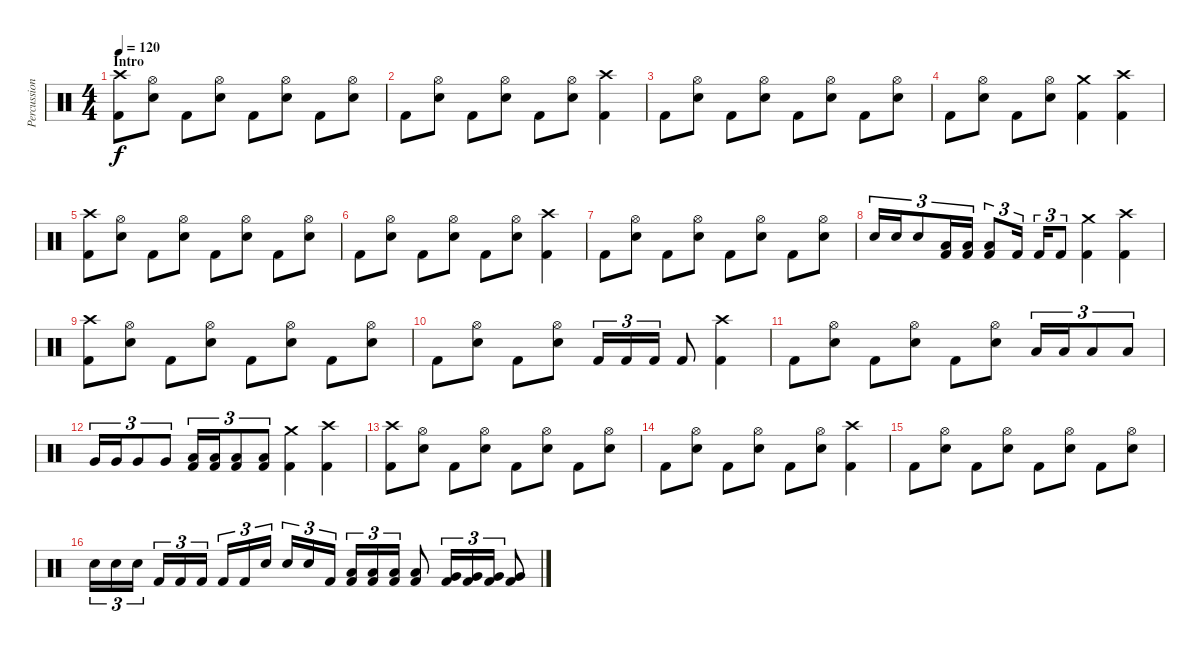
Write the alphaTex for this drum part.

\track ("Percussioni" "Percussion") {instrument percussion}
\staff {score}
\articulation defaults
\ts (4 4)
\section ("" "Intro")
\tempo 120
\tempo 230
\tempo 120
\clef neutral
\ks c
("Crash high (hit)" "Kick (hit) 2").8{dy f} ("Hi-Hat (open)" "Electric Snare (hit)").8 "Kick (hit) 2".8 ("Hi-Hat (open)" "Electric Snare (hit)").8 "Kick (hit) 2".8 ("Hi-Hat (open)" "Electric Snare (hit)").8 "Kick (hit) 2".8 ("Hi-Hat (open)" "Electric Snare (hit)").8 |
"Kick (hit) 2".8 ("Hi-Hat (open)" "Electric Snare (hit)").8 "Kick (hit) 2".8 ("Hi-Hat (open)" "Electric Snare (hit)").8 "Kick (hit) 2".8 ("Hi-Hat (open)" "Electric Snare (hit)").8 ("Crash high (hit)" "Kick (hit) 2").4 |
"Kick (hit) 2".8 ("Hi-Hat (open)" "Electric Snare (hit)").8 "Kick (hit) 2".8 ("Hi-Hat (open)" "Electric Snare (hit)").8 "Kick (hit) 2".8 ("Hi-Hat (open)" "Electric Snare (hit)").8 "Kick (hit) 2".8 ("Hi-Hat (open)" "Electric Snare (hit)").8 |
"Kick (hit) 2".8 ("Hi-Hat (open)" "Electric Snare (hit)").8 "Kick (hit) 2".8 ("Hi-Hat (open)" "Electric Snare (hit)").8 ("Crash medium (hit)" "Kick (hit) 2").4 ("Crash high (hit)" "Kick (hit) 2").4 |
("Crash high (hit)" "Kick (hit) 2").8 ("Hi-Hat (open)" "Electric Snare (hit)").8 "Kick (hit) 2".8 ("Hi-Hat (open)" "Electric Snare (hit)").8 "Kick (hit) 2".8 ("Hi-Hat (open)" "Electric Snare (hit)").8 "Kick (hit) 2".8 ("Hi-Hat (open)" "Electric Snare (hit)").8 |
"Kick (hit) 2".8 ("Hi-Hat (open)" "Electric Snare (hit)").8 "Kick (hit) 2".8 ("Hi-Hat (open)" "Electric Snare (hit)").8 "Kick (hit) 2".8 ("Hi-Hat (open)" "Electric Snare (hit)").8 ("Crash high (hit)" "Kick (hit) 2").4 |
"Kick (hit) 2".8 ("Hi-Hat (open)" "Electric Snare (hit)").8 "Kick (hit) 2".8 ("Hi-Hat (open)" "Electric Snare (hit)").8 "Kick (hit) 2".8 ("Hi-Hat (open)" "Electric Snare (hit)").8 "Kick (hit) 2".8 ("Hi-Hat (open)" "Electric Snare (hit)").8 |
"Electric Snare (hit)".16{tu (3 2)} "Electric Snare (hit)".16{tu (3 2)} "Electric Snare (hit)".8{tu (3 2)} ("Low Floor Tom (hit)" "Kick (hit) 2").16{tu (3 2)} ("Low Floor Tom (hit)" "Kick (hit) 2").16{tu (3 2)} ("Low Floor Tom (hit)" "Kick (hit) 2").8{tu (3 2)} "Kick (hit) 2".16{tu (3 2)} "Kick (hit) 2".16{tu (3 2)} "Kick (hit) 2".8{tu (3 2)} ("Crash medium (hit)" "Kick (hit) 2").4 ("Crash high (hit)" "Kick (hit) 2").4 |
("Crash high (hit)" "Kick (hit) 2").8 ("Hi-Hat (open)" "Electric Snare (hit)").8 "Kick (hit) 2".8 ("Hi-Hat (open)" "Electric Snare (hit)").8 "Kick (hit) 2".8 ("Hi-Hat (open)" "Electric Snare (hit)").8 "Kick (hit) 2".8 ("Hi-Hat (open)" "Electric Snare (hit)").8 |
"Kick (hit) 2".8 ("Hi-Hat (open)" "Electric Snare (hit)").8 "Kick (hit) 2".8 ("Hi-Hat (open)" "Electric Snare (hit)").8 "Kick (hit) 2".16{tu (3 2)} "Kick (hit) 2".16{tu (3 2)} "Kick (hit) 2".16{tu (3 2)} "Kick (hit) 2".8 ("Crash high (hit)" "Kick (hit) 2").4 |
"Kick (hit) 2".8 ("Hi-Hat (open)" "Electric Snare (hit)").8 "Kick (hit) 2".8 ("Hi-Hat (open)" "Electric Snare (hit)").8 "Kick (hit) 2".8 ("Hi-Hat (open)" "Electric Snare (hit)").8 "Low Tom (hit)".16{tu (3 2)} "Low Tom (hit)".16{tu (3 2)} "Low Tom (hit)".8{tu (3 2)} "Low Tom (hit)".8{tu (3 2)} |
"Very Low Tom (hit)".16{tu (3 2)} "Very Low Tom (hit)".16{tu (3 2)} "Very Low Tom (hit)".8{tu (3 2)} "Very Low Tom (hit)".8{tu (3 2)} ("Low Floor Tom (hit)" "Kick (hit) 2").16{tu (3 2)} ("Low Floor Tom (hit)" "Kick (hit) 2").16{tu (3 2)} ("Low Floor Tom (hit)" "Kick (hit) 2").8{tu (3 2)} ("Low Floor Tom (hit)" "Kick (hit) 2").8{tu (3 2)} ("Crash medium (hit)" "Kick (hit) 2").4 ("Crash high (hit)" "Kick (hit) 2").4 |
("Crash high (hit)" "Kick (hit) 2").8 ("Hi-Hat (open)" "Electric Snare (hit)").8 "Kick (hit) 2".8 ("Hi-Hat (open)" "Electric Snare (hit)").8 "Kick (hit) 2".8 ("Hi-Hat (open)" "Electric Snare (hit)").8 "Kick (hit) 2".8 ("Hi-Hat (open)" "Electric Snare (hit)").8 |
"Kick (hit) 2".8 ("Hi-Hat (open)" "Electric Snare (hit)").8 "Kick (hit) 2".8 ("Hi-Hat (open)" "Electric Snare (hit)").8 "Kick (hit) 2".8 ("Hi-Hat (open)" "Electric Snare (hit)").8 ("Crash high (hit)" "Kick (hit) 2").4 |
"Kick (hit) 2".8 ("Hi-Hat (open)" "Electric Snare (hit)").8 "Kick (hit) 2".8 ("Hi-Hat (open)" "Electric Snare (hit)").8 "Kick (hit) 2".8 ("Hi-Hat (open)" "Electric Snare (hit)").8 "Kick (hit) 2".8 ("Hi-Hat (open)" "Electric Snare (hit)").8 |
"Electric Snare (hit)".16{tu (3 2)} "Electric Snare (hit)".16{tu (3 2)} "Electric Snare (hit)".16{tu (3 2)} "Kick (hit) 2".16{tu (3 2)} "Kick (hit) 2".16{tu (3 2)} "Kick (hit) 2".16{tu (3 2)} "Kick (hit) 2".16{tu (3 2)} "Kick (hit) 2".16{tu (3 2)} "Electric Snare (hit)".16{tu (3 2)} "Electric Snare (hit)".16{tu (3 2)} "Electric Snare (hit)".16{tu (3 2)} "Kick (hit) 2".16{tu (3 2)} ("Low Tom (hit)" "Kick (hit) 2").16{tu (3 2)} ("Low Tom (hit)" "Kick (hit) 2").16{tu (3 2)} ("Low Tom (hit)" "Kick (hit) 2").16{tu (3 2)} ("Low Tom (hit)" "Kick (hit) 2").8 ("Very Low Tom (hit)" "Kick (hit) 2").16{tu (3 2)} ("Very Low Tom (hit)" "Kick (hit) 2").16{tu (3 2)} ("Very Low Tom (hit)" "Kick (hit) 2").16{tu (3 2)} ("Very Low Tom (hit)" "Kick (hit) 2").8
